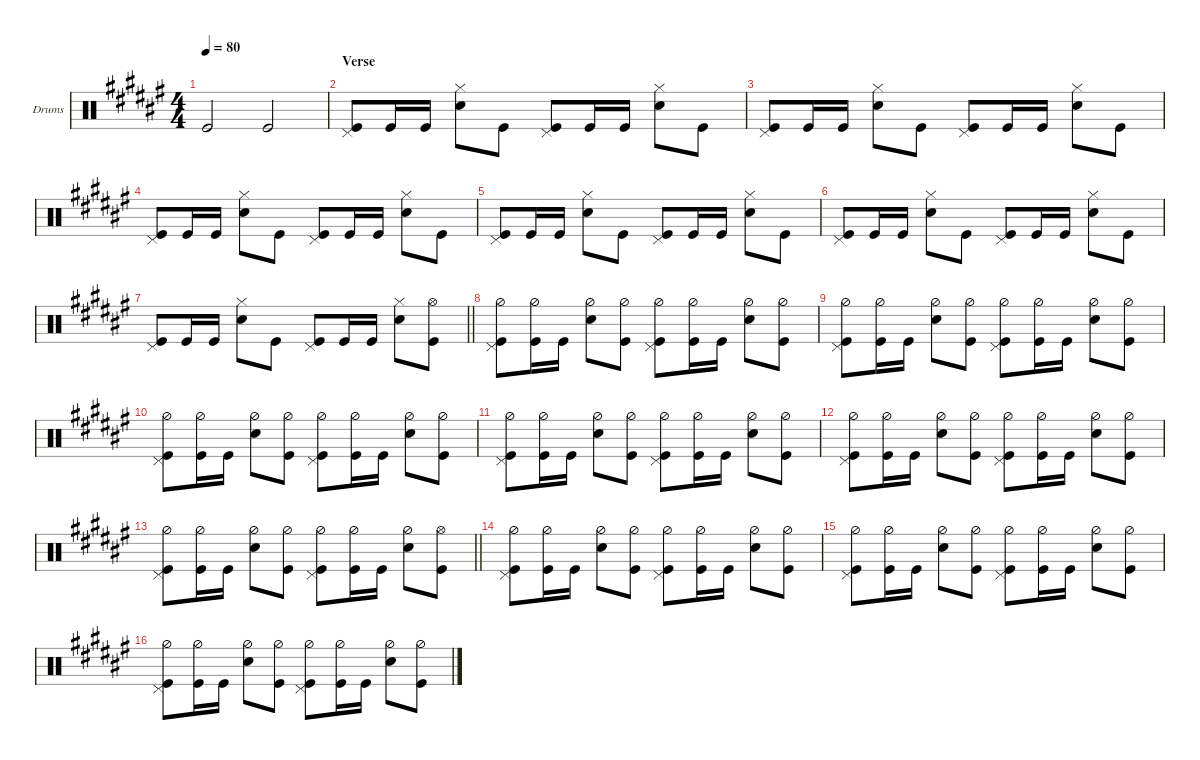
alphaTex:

\defaultSystemsLayout 4
\hideDynamics
\bracketExtendMode groupsimilarinstruments
\multiBarRest
\firstSystemTrackNameOrientation horizontal
\otherSystemsTrackNameOrientation horizontal
\track ("Drumkit" "Drums") {multiBarRest instrument percussion}
\staff {score}
\articulation defaults
\ts (4 4)
\tempo 80
\clef neutral
\ks f# "Kick (hit)".2{dy mf} "Kick (hit)".2
|
\section ("" "Verse")
("Kick (hit)" "Pedal Hi-Hat (hit)").8 "Kick (hit)".16 "Kick (hit)".16 ("Snare (hit) 2" "Hi-Hat (closed)").8 "Kick (hit)".8 ("Kick (hit)" "Pedal Hi-Hat (hit)").8 "Kick (hit)".16 "Kick (hit)".16 ("Snare (hit) 2" "Hi-Hat (closed)").8 "Kick (hit)".8 |
("Kick (hit)" "Pedal Hi-Hat (hit)").8 "Kick (hit)".16 "Kick (hit)".16 ("Snare (hit) 2" "Hi-Hat (closed)").8 "Kick (hit)".8 ("Kick (hit)" "Pedal Hi-Hat (hit)").8 "Kick (hit)".16 "Kick (hit)".16 ("Snare (hit) 2" "Hi-Hat (closed)").8 "Kick (hit)".8 |
("Kick (hit)" "Pedal Hi-Hat (hit)").8 "Kick (hit)".16 "Kick (hit)".16 ("Snare (hit) 2" "Hi-Hat (closed)").8 "Kick (hit)".8 ("Kick (hit)" "Pedal Hi-Hat (hit)").8 "Kick (hit)".16 "Kick (hit)".16 ("Snare (hit) 2" "Hi-Hat (closed)").8 "Kick (hit)".8 |
("Kick (hit)" "Pedal Hi-Hat (hit)").8 "Kick (hit)".16 "Kick (hit)".16 ("Snare (hit) 2" "Hi-Hat (closed)").8 "Kick (hit)".8 ("Kick (hit)" "Pedal Hi-Hat (hit)").8 "Kick (hit)".16 "Kick (hit)".16 ("Snare (hit) 2" "Hi-Hat (closed)").8 "Kick (hit)".8 |
("Kick (hit)" "Pedal Hi-Hat (hit)").8 "Kick (hit)".16 "Kick (hit)".16 ("Snare (hit) 2" "Hi-Hat (closed)").8 "Kick (hit)".8 ("Kick (hit)" "Pedal Hi-Hat (hit)").8 "Kick (hit)".16 "Kick (hit)".16 ("Snare (hit) 2" "Hi-Hat (closed)").8 "Kick (hit)".8 |
\barLineRight lightlight
("Kick (hit)" "Pedal Hi-Hat (hit)").8 "Kick (hit)".16 "Kick (hit)".16 ("Snare (hit) 2" "Hi-Hat (closed)").8 "Kick (hit)".8 ("Kick (hit)" "Pedal Hi-Hat (hit)").8 "Kick (hit)".16 "Kick (hit)".16 ("Snare (hit) 2" "Hi-Hat (closed)").8 ("Kick (hit)" "Hi-Hat (open)").8 |
("Kick (hit)" "Pedal Hi-Hat (hit)" "Hi-Hat (half)").8 ("Kick (hit)" "Hi-Hat (half)").16 "Kick (hit)".16 ("Snare (hit) 2" "Hi-Hat (half)").8 ("Kick (hit)" "Hi-Hat (half)").8 ("Kick (hit)" "Pedal Hi-Hat (hit)" "Hi-Hat (half)").8 ("Kick (hit)" "Hi-Hat (half)").16 "Kick (hit)".16 ("Snare (hit) 2" "Hi-Hat (half)").8 ("Kick (hit)" "Hi-Hat (half)").8 |
("Kick (hit)" "Pedal Hi-Hat (hit)" "Hi-Hat (half)").8 ("Kick (hit)" "Hi-Hat (half)").16 "Kick (hit)".16 ("Snare (hit) 2" "Hi-Hat (half)").8 ("Kick (hit)" "Hi-Hat (half)").8 ("Kick (hit)" "Pedal Hi-Hat (hit)" "Hi-Hat (half)").8 ("Kick (hit)" "Hi-Hat (half)").16 "Kick (hit)".16 ("Snare (hit) 2" "Hi-Hat (half)").8 ("Kick (hit)" "Hi-Hat (half)").8 |
("Kick (hit)" "Pedal Hi-Hat (hit)" "Hi-Hat (half)").8 ("Kick (hit)" "Hi-Hat (half)").16 "Kick (hit)".16 ("Snare (hit) 2" "Hi-Hat (half)").8 ("Kick (hit)" "Hi-Hat (half)").8 ("Kick (hit)" "Pedal Hi-Hat (hit)" "Hi-Hat (half)").8 ("Kick (hit)" "Hi-Hat (half)").16 "Kick (hit)".16 ("Snare (hit) 2" "Hi-Hat (half)").8 ("Kick (hit)" "Hi-Hat (half)").8 |
("Kick (hit)" "Pedal Hi-Hat (hit)" "Hi-Hat (half)").8 ("Kick (hit)" "Hi-Hat (half)").16 "Kick (hit)".16 ("Snare (hit) 2" "Hi-Hat (half)").8 ("Kick (hit)" "Hi-Hat (half)").8 ("Kick (hit)" "Pedal Hi-Hat (hit)" "Hi-Hat (half)").8 ("Kick (hit)" "Hi-Hat (half)").16 "Kick (hit)".16 ("Snare (hit) 2" "Hi-Hat (half)").8 ("Kick (hit)" "Hi-Hat (half)").8 |
("Kick (hit)" "Pedal Hi-Hat (hit)" "Hi-Hat (half)").8 ("Kick (hit)" "Hi-Hat (half)").16 "Kick (hit)".16 ("Snare (hit) 2" "Hi-Hat (half)").8 ("Kick (hit)" "Hi-Hat (half)").8 ("Kick (hit)" "Pedal Hi-Hat (hit)" "Hi-Hat (half)").8 ("Kick (hit)" "Hi-Hat (half)").16 "Kick (hit)".16 ("Snare (hit) 2" "Hi-Hat (half)").8 ("Kick (hit)" "Hi-Hat (half)").8 |
\barLineRight lightlight
("Kick (hit)" "Pedal Hi-Hat (hit)" "Hi-Hat (half)").8 ("Kick (hit)" "Hi-Hat (half)").16 "Kick (hit)".16 ("Snare (hit) 2" "Hi-Hat (half)").8 ("Kick (hit)" "Hi-Hat (half)").8 ("Kick (hit)" "Pedal Hi-Hat (hit)" "Hi-Hat (half)").8 ("Kick (hit)" "Hi-Hat (half)").16 "Kick (hit)".16 ("Snare (hit) 2" "Hi-Hat (half)").8 ("Kick (hit)" "Hi-Hat (open)").8 |
("Kick (hit)" "Pedal Hi-Hat (hit)" "Hi-Hat (half)").8 ("Kick (hit)" "Hi-Hat (half)").16 "Kick (hit)".16 ("Snare (hit) 2" "Hi-Hat (half)").8 ("Kick (hit)" "Hi-Hat (half)").8 ("Kick (hit)" "Pedal Hi-Hat (hit)" "Hi-Hat (half)").8 ("Kick (hit)" "Hi-Hat (half)").16 "Kick (hit)".16 ("Snare (hit) 2" "Hi-Hat (half)").8 ("Kick (hit)" "Hi-Hat (half)").8 |
("Kick (hit)" "Pedal Hi-Hat (hit)" "Hi-Hat (half)").8 ("Kick (hit)" "Hi-Hat (half)").16 "Kick (hit)".16 ("Snare (hit) 2" "Hi-Hat (half)").8 ("Kick (hit)" "Hi-Hat (half)").8 ("Kick (hit)" "Pedal Hi-Hat (hit)" "Hi-Hat (half)").8 ("Kick (hit)" "Hi-Hat (half)").16 "Kick (hit)".16 ("Snare (hit) 2" "Hi-Hat (half)").8 ("Kick (hit)" "Hi-Hat (half)").8 |
("Kick (hit)" "Pedal Hi-Hat (hit)" "Hi-Hat (half)").8 ("Kick (hit)" "Hi-Hat (half)").16 "Kick (hit)".16 ("Snare (hit) 2" "Hi-Hat (half)").8 ("Kick (hit)" "Hi-Hat (half)").8 ("Kick (hit)" "Pedal Hi-Hat (hit)" "Hi-Hat (half)").8 ("Kick (hit)" "Hi-Hat (half)").16 "Kick (hit)".16 ("Snare (hit) 2" "Hi-Hat (half)").8 ("Kick (hit)" "Hi-Hat (half)").8
